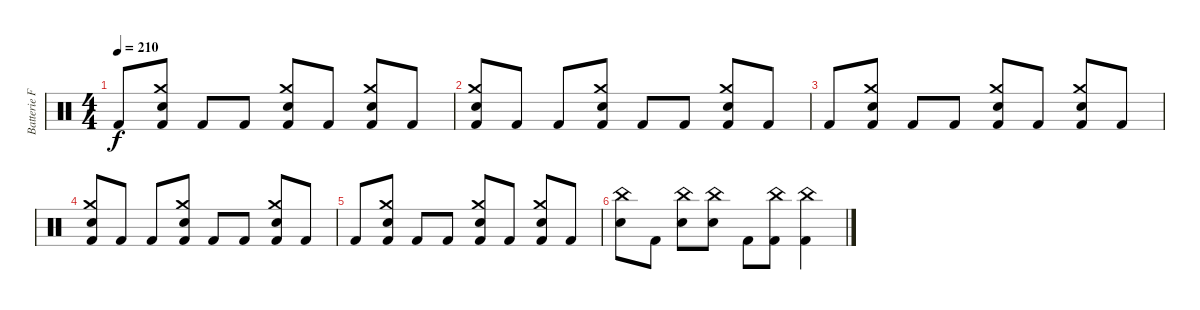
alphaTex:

\track ("Batterie Franck" "Batterie F") {instrument percussion}
\staff {score}
\articulation defaults
\ts (4 4)
\tempo 210
\clef neutral
\ks c "Kick (hit) 2".8{dy f}
("Crash medium (hit)" "Snare (hit) 2" "Kick (hit) 2").8 "Kick (hit) 2".8 "Kick (hit) 2".8 ("Crash medium (hit)" "Snare (hit) 2" "Kick (hit) 2").8 "Kick (hit) 2".8 ("Crash medium (hit)" "Snare (hit) 2" "Kick (hit) 2").8 "Kick (hit) 2".8 |
("Crash medium (hit)" "Snare (hit) 2" "Kick (hit) 2").8 "Kick (hit) 2".8 "Kick (hit) 2".8 ("Crash medium (hit)" "Snare (hit) 2" "Kick (hit) 2").8 "Kick (hit) 2".8 "Kick (hit) 2".8 ("Crash medium (hit)" "Snare (hit) 2" "Kick (hit) 2").8 "Kick (hit) 2".8 |
"Kick (hit) 2".8 ("Crash medium (hit)" "Snare (hit) 2" "Kick (hit) 2").8 "Kick (hit) 2".8 "Kick (hit) 2".8 ("Crash medium (hit)" "Snare (hit) 2" "Kick (hit) 2").8 "Kick (hit) 2".8 ("Crash medium (hit)" "Snare (hit) 2" "Kick (hit) 2").8 "Kick (hit) 2".8 |
("Crash medium (hit)" "Snare (hit) 2" "Kick (hit) 2").8 "Kick (hit) 2".8 "Kick (hit) 2".8 ("Crash medium (hit)" "Snare (hit) 2" "Kick (hit) 2").8 "Kick (hit) 2".8 "Kick (hit) 2".8 ("Crash medium (hit)" "Snare (hit) 2" "Kick (hit) 2").8 "Kick (hit) 2".8 |
"Kick (hit) 2".8 ("Crash medium (hit)" "Snare (hit) 2" "Kick (hit) 2").8 "Kick (hit) 2".8 "Kick (hit) 2".8 ("Crash medium (hit)" "Snare (hit) 2" "Kick (hit) 2").8 "Kick (hit) 2".8 ("Crash medium (hit)" "Snare (hit) 2" "Kick (hit) 2").8 "Kick (hit) 2".8 |
("China (hit)" "Snare (hit) 2").8 "Kick (hit) 2".8 ("China (hit)" "Snare (hit) 2").8 ("China (hit)" "Snare (hit) 2").8 "Kick (hit) 2".8 ("China (hit)" "Kick (hit) 2").8 ("China (hit)" "Kick (hit) 2").4
